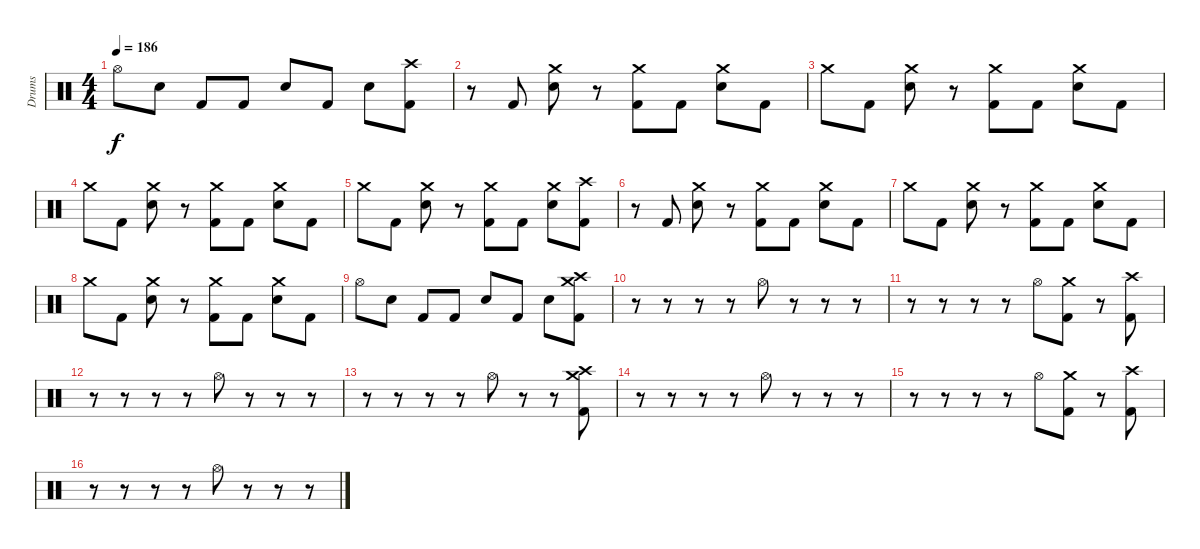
\track ("Drums" "Drums") {instrument percussion}
\staff
\articulation defaults
\ts (4 4)
\tempo 186
\clef neutral
\ks c "Hi-Hat (open)".8{dy f} "Electric Snare (hit)".8 "Kick (hit) 2".8 "Kick (hit) 2".8 "Electric Snare (hit)".8 "Kick (hit) 2".8 "Electric Snare (hit)".8
("Crash high (hit)" "Kick (hit) 2").8 |
r.8 "Kick (hit) 2".8 ("Crash medium (hit)" "Electric Snare (hit)").8 r.8 ("Crash medium (hit)" "Kick (hit) 2").8 "Kick (hit) 2".8 ("Crash medium (hit)" "Electric Snare (hit)").8 "Kick (hit) 2".8 |
"Crash medium (hit)".8 "Kick (hit) 2".8 ("Crash medium (hit)" "Electric Snare (hit)").8 r.8 ("Crash medium (hit)" "Kick (hit) 2").8 "Kick (hit) 2".8 ("Crash medium (hit)" "Electric Snare (hit)").8 "Kick (hit) 2".8 |
"Crash medium (hit)".8 "Kick (hit) 2".8 ("Crash medium (hit)" "Electric Snare (hit)").8 r.8 ("Crash medium (hit)" "Kick (hit) 2").8 "Kick (hit) 2".8 ("Crash medium (hit)" "Electric Snare (hit)").8 "Kick (hit) 2".8 |
"Crash medium (hit)".8 "Kick (hit) 2".8 ("Crash medium (hit)" "Electric Snare (hit)").8 r.8 ("Crash medium (hit)" "Kick (hit) 2").8 "Kick (hit) 2".8 ("Crash medium (hit)" "Electric Snare (hit)").8 ("Crash high (hit)" "Kick (hit) 2").8 |
r.8 "Kick (hit) 2".8 ("Crash medium (hit)" "Electric Snare (hit)").8 r.8 ("Crash medium (hit)" "Kick (hit) 2").8 "Kick (hit) 2".8 ("Crash medium (hit)" "Electric Snare (hit)").8 "Kick (hit) 2".8 |
"Crash medium (hit)".8 "Kick (hit) 2".8 ("Crash medium (hit)" "Electric Snare (hit)").8 r.8 ("Crash medium (hit)" "Kick (hit) 2").8 "Kick (hit) 2".8 ("Crash medium (hit)" "Electric Snare (hit)").8 "Kick (hit) 2".8 |
"Crash medium (hit)".8 "Kick (hit) 2".8 ("Crash medium (hit)" "Electric Snare (hit)").8 r.8 ("Crash medium (hit)" "Kick (hit) 2").8 "Kick (hit) 2".8 ("Crash medium (hit)" "Electric Snare (hit)").8 "Kick (hit) 2".8 |
"Hi-Hat (open)".8 "Electric Snare (hit)".8 "Kick (hit) 2".8 "Kick (hit) 2".8 "Electric Snare (hit)".8 "Kick (hit) 2".8 "Electric Snare (hit)".8 ("Crash high (hit)" "Crash medium (hit)" "Kick (hit) 2").8 |
r.8 r.8 r.8 r.8 "Hi-Hat (open)".8 r.8 r.8 r.8 |
r.8 r.8 r.8 r.8 "Hi-Hat (open)".8 ("Crash medium (hit)" "Kick (hit) 2").8 r.8 ("Crash high (hit)" "Kick (hit) 2").8 |
r.8 r.8 r.8 r.8 "Hi-Hat (open)".8 r.8 r.8 r.8 |
r.8 r.8 r.8 r.8 "Hi-Hat (open)".8 r.8 r.8 ("Crash high (hit)" "Crash medium (hit)" "Kick (hit) 2").8 |
r.8 r.8 r.8 r.8 "Hi-Hat (open)".8 r.8 r.8 r.8 |
r.8 r.8 r.8 r.8 "Hi-Hat (open)".8 ("Crash medium (hit)" "Kick (hit) 2").8 r.8 ("Crash high (hit)" "Kick (hit) 2").8 |
r.8 r.8 r.8 r.8 "Hi-Hat (open)".8 r.8 r.8 r.8
